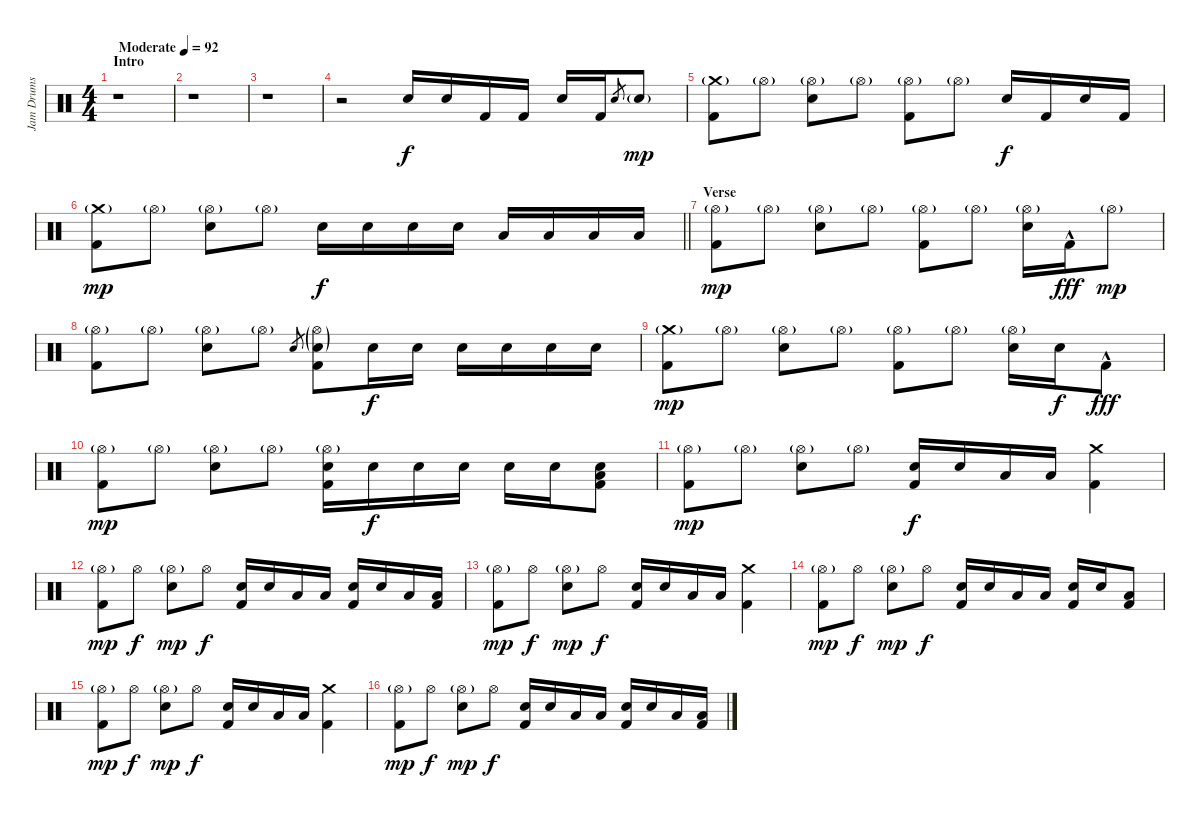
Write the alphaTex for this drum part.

\track ("Jam Drums" "Jam Drums") {instrument percussion}
\staff {score}
\articulation defaults
\ts (4 4)
\section ("" "Intro")
\tempo (92 "Moderate")
\clef neutral
\ks c
r.1{dy f} |
r.1 |
r.1 |
r.2 "Snare (hit) 2".16 "Snare (hit) 2".16 "Kick (hit) 2".16 "Kick (hit) 2".16 "Snare (hit) 2".16 "Kick (hit) 2".16 "Snare (hit) 2".8{gr} "Snare (hit) 2"{g}.8{dy mp} |
("Crash medium (hit)"{g} "Kick (hit) 2").8 "Hi-Hat (open)"{g}.8 ("Hi-Hat (open)"{g} "Snare (hit) 2").8 "Hi-Hat (open)"{g}.8 ("Hi-Hat (open)"{g} "Kick (hit) 2").8 "Hi-Hat (open)"{g}.8 "Snare (hit) 2".16{dy f} "Kick (hit) 2".16 "Snare (hit) 2".16 "Kick (hit) 2".16 |
\barLineRight lightlight
("Crash medium (hit)"{g} "Kick (hit) 2").8{dy mp} "Hi-Hat (open)"{g}.8 ("Hi-Hat (open)"{g} "Snare (hit) 2").8 "Hi-Hat (open)"{g}.8 "Snare (hit) 2".16{dy f} "Snare (hit) 2".16 "Snare (hit) 2".16 "Snare (hit) 2".16 "Low Tom (hit)".16 "Low Tom (hit)".16 "Low Tom (hit)".16 "Low Tom (hit)".16 |
\section ("" "Verse")
("Hi-Hat (open)"{g} "Kick (hit) 2").8{dy mp} "Hi-Hat (open)"{g}.8 ("Hi-Hat (open)"{g} "Snare (hit) 2").8 "Hi-Hat (open)"{g}.8 ("Hi-Hat (open)"{g} "Kick (hit) 2").8 "Hi-Hat (open)"{g}.8 ("Hi-Hat (open)"{g} "Snare (hit) 2").16 "Kick (hit) 2"{hac}.16{dy fff} "Hi-Hat (open)"{g}.8{dy mp} |
("Hi-Hat (open)"{g} "Kick (hit) 2").8 "Hi-Hat (open)"{g}.8 ("Hi-Hat (open)"{g} "Snare (hit) 2").8 "Hi-Hat (open)"{g}.8 "Snare (hit) 2".8{gr} ("Hi-Hat (open)"{g} "Snare (hit) 2"{g} "Kick (hit) 2").8 "Snare (hit) 2".16{dy f} "Snare (hit) 2".16 "Snare (hit) 2".16 "Snare (hit) 2".16 "Snare (hit) 2".16 "Snare (hit) 2".16 |
("Crash medium (hit)"{g} "Kick (hit) 2").8{dy mp} "Hi-Hat (open)"{g}.8 ("Hi-Hat (open)"{g} "Snare (hit) 2").8 "Hi-Hat (open)"{g}.8 ("Hi-Hat (open)"{g} "Kick (hit) 2").8 "Hi-Hat (open)"{g}.8 ("Hi-Hat (open)"{g} "Snare (hit) 2").16 "Snare (hit) 2".16{dy f} "Kick (hit) 2"{hac}.8{dy fff} |
("Hi-Hat (open)"{g} "Kick (hit) 2").8{dy mp} "Hi-Hat (open)"{g}.8 ("Hi-Hat (open)"{g} "Snare (hit) 2").8 "Hi-Hat (open)"{g}.8 ("Hi-Hat (open)"{g} "Snare (hit) 2" "Kick (hit) 2").16 "Snare (hit) 2".16{dy f} "Snare (hit) 2".16 "Snare (hit) 2".16 "Snare (hit) 2".16 "Snare (hit) 2".16 ("Low Tom (hit)" "Snare (hit) 2" "Kick (hit) 2").8 |
("Hi-Hat (open)"{g} "Kick (hit) 2").8{dy mp} "Hi-Hat (open)"{g}.8 ("Hi-Hat (open)"{g} "Snare (hit) 2").8 "Hi-Hat (open)"{g}.8 ("Snare (hit) 2" "Kick (hit) 2").16{dy f} "Snare (hit) 2".16 "Low Tom (hit)".16 "Low Tom (hit)".16 ("Crash medium (hit)" "Kick (hit) 2").4 |
("Hi-Hat (open)"{g} "Kick (hit) 2").8{dy mp} "Hi-Hat (open)".8{dy f} ("Hi-Hat (open)"{g} "Snare (hit) 2").8{dy mp} "Hi-Hat (open)".8{dy f} ("Snare (hit) 2" "Kick (hit) 2").16 "Snare (hit) 2".16 "Low Tom (hit)".16 "Low Tom (hit)".16 ("Snare (hit) 2" "Kick (hit) 2").16 "Snare (hit) 2".16 "Low Tom (hit)".16 ("Low Tom (hit)" "Kick (hit) 2").16 |
("Hi-Hat (open)"{g} "Kick (hit) 2").8{dy mp} "Hi-Hat (open)".8{dy f} ("Hi-Hat (open)"{g} "Snare (hit) 2").8{dy mp} "Hi-Hat (open)".8{dy f} ("Snare (hit) 2" "Kick (hit) 2").16 "Snare (hit) 2".16 "Low Tom (hit)".16 "Low Tom (hit)".16 ("Crash medium (hit)" "Kick (hit) 2").4 |
("Hi-Hat (open)"{g} "Kick (hit) 2").8{dy mp} "Hi-Hat (open)".8{dy f} ("Hi-Hat (open)"{g} "Snare (hit) 2").8{dy mp} "Hi-Hat (open)".8{dy f} ("Snare (hit) 2" "Kick (hit) 2").16 "Snare (hit) 2".16 "Low Tom (hit)".16 "Low Tom (hit)".16 ("Snare (hit) 2" "Kick (hit) 2").16 "Snare (hit) 2".16 ("Low Tom (hit)" "Kick (hit) 2").8 |
("Hi-Hat (open)"{g} "Kick (hit) 2").8{dy mp} "Hi-Hat (open)".8{dy f} ("Hi-Hat (open)"{g} "Snare (hit) 2").8{dy mp} "Hi-Hat (open)".8{dy f} ("Snare (hit) 2" "Kick (hit) 2").16 "Snare (hit) 2".16 "Low Tom (hit)".16 "Low Tom (hit)".16 ("Crash medium (hit)" "Kick (hit) 2").4 |
("Hi-Hat (open)"{g} "Kick (hit) 2").8{dy mp} "Hi-Hat (open)".8{dy f} ("Hi-Hat (open)"{g} "Snare (hit) 2").8{dy mp} "Hi-Hat (open)".8{dy f} ("Snare (hit) 2" "Kick (hit) 2").16 "Snare (hit) 2".16 "Low Tom (hit)".16 "Low Tom (hit)".16 ("Snare (hit) 2" "Kick (hit) 2").16 "Snare (hit) 2".16 "Low Tom (hit)".16 ("Low Tom (hit)" "Kick (hit) 2").16
